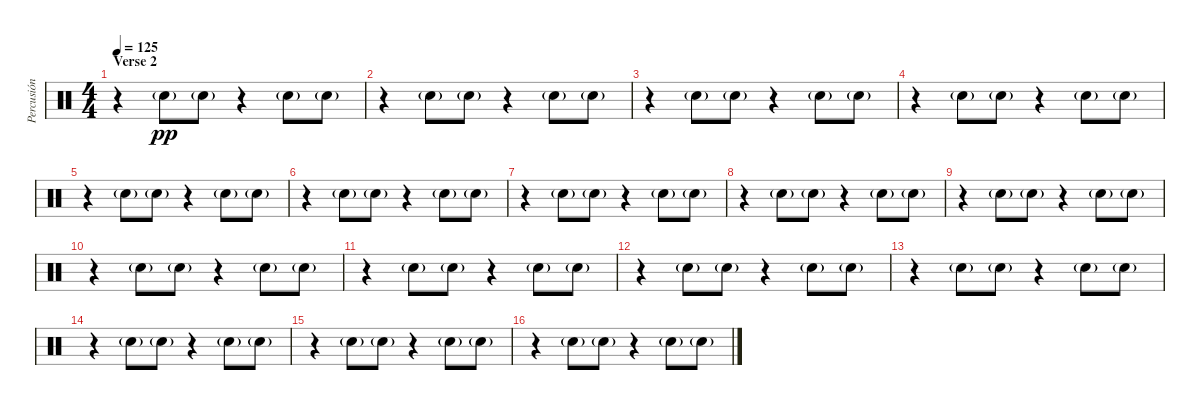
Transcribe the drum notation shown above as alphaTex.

\track ("Percusión" "Percusión") {instrument percussion}
\staff {score}
\articulation defaults
\ts (4 4)
\section ("" "Verse 2")
\tempo 125
\clef neutral
\ks c
r.4{dy f} "Snare (hit) 2"{g}.8{dy pp} "Snare (hit) 2"{g}.8 r.4 "Snare (hit) 2"{g}.8 "Snare (hit) 2"{g}.8 |
r.4 "Snare (hit) 2"{g}.8 "Snare (hit) 2"{g}.8 r.4 "Snare (hit) 2"{g}.8 "Snare (hit) 2"{g}.8 |
r.4 "Snare (hit) 2"{g}.8 "Snare (hit) 2"{g}.8 r.4 "Snare (hit) 2"{g}.8 "Snare (hit) 2"{g}.8 |
r.4 "Snare (hit) 2"{g}.8 "Snare (hit) 2"{g}.8 r.4 "Snare (hit) 2"{g}.8 "Snare (hit) 2"{g}.8 |
r.4 "Snare (hit) 2"{g}.8 "Snare (hit) 2"{g}.8 r.4 "Snare (hit) 2"{g}.8 "Snare (hit) 2"{g}.8 |
r.4 "Snare (hit) 2"{g}.8 "Snare (hit) 2"{g}.8 r.4 "Snare (hit) 2"{g}.8 "Snare (hit) 2"{g}.8 |
r.4 "Snare (hit) 2"{g}.8 "Snare (hit) 2"{g}.8 r.4 "Snare (hit) 2"{g}.8 "Snare (hit) 2"{g}.8 |
r.4 "Snare (hit) 2"{g}.8 "Snare (hit) 2"{g}.8 r.4 "Snare (hit) 2"{g}.8 "Snare (hit) 2"{g}.8 |
r.4 "Snare (hit) 2"{g}.8 "Snare (hit) 2"{g}.8 r.4 "Snare (hit) 2"{g}.8 "Snare (hit) 2"{g}.8 |
r.4 "Snare (hit) 2"{g}.8 "Snare (hit) 2"{g}.8 r.4 "Snare (hit) 2"{g}.8 "Snare (hit) 2"{g}.8 |
r.4 "Snare (hit) 2"{g}.8 "Snare (hit) 2"{g}.8 r.4 "Snare (hit) 2"{g}.8 "Snare (hit) 2"{g}.8 |
r.4 "Snare (hit) 2"{g}.8 "Snare (hit) 2"{g}.8 r.4 "Snare (hit) 2"{g}.8 "Snare (hit) 2"{g}.8 |
r.4 "Snare (hit) 2"{g}.8 "Snare (hit) 2"{g}.8 r.4 "Snare (hit) 2"{g}.8 "Snare (hit) 2"{g}.8 |
r.4 "Snare (hit) 2"{g}.8 "Snare (hit) 2"{g}.8 r.4 "Snare (hit) 2"{g}.8 "Snare (hit) 2"{g}.8 |
r.4 "Snare (hit) 2"{g}.8 "Snare (hit) 2"{g}.8 r.4 "Snare (hit) 2"{g}.8 "Snare (hit) 2"{g}.8 |
r.4 "Snare (hit) 2"{g}.8 "Snare (hit) 2"{g}.8 r.4 "Snare (hit) 2"{g}.8 "Snare (hit) 2"{g}.8
